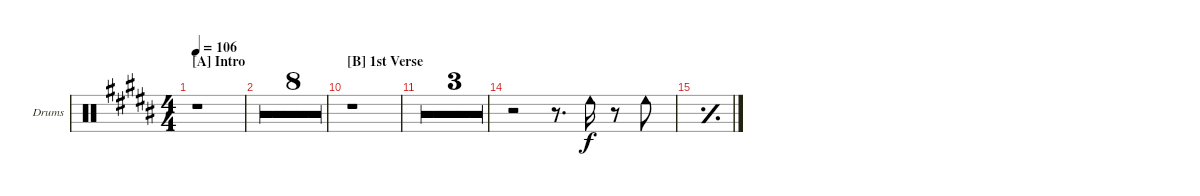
\defaultSystemsLayout 4
\bracketExtendMode groupsimilarinstruments
\firstSystemTrackNameOrientation horizontal
\otherSystemsTrackNameOrientation horizontal
\track ("Cowbell" "Drums") {multiBarRest instrument percussion}
\staff {score}
\articulation defaults
\ts (4 4)
\section ("A" "Intro")
\tempo 106
\clef neutral
\ks b
r.1{dy f} |
r.1 |
r.1 |
r.1 |
r.1 |
r.1 |
r.1 |
r.1 |
r.1 |
\section ("B" "1st Verse")
r.1 |
r.1 |
r.1 |
r.1 |
r.2 r.8{d} "Cowbell low (hit)".16 r.8 "Cowbell low (hit)".8 |
\simile simple
